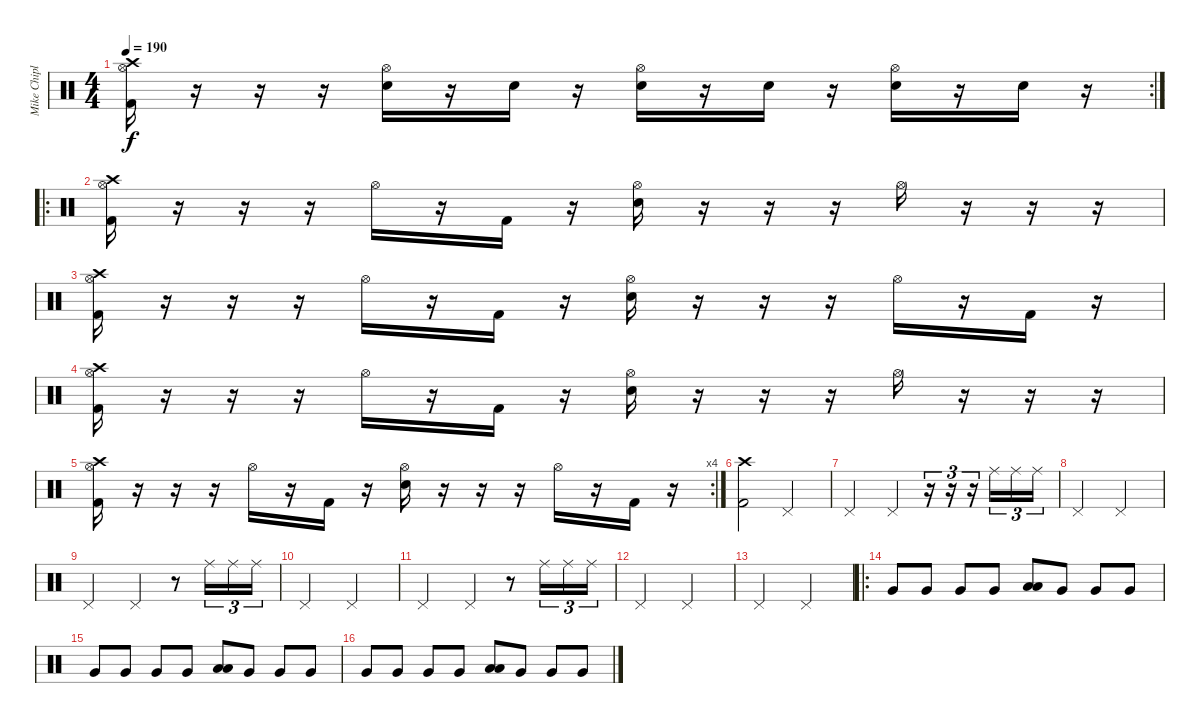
\track ("Mike Chiplin" "Mike Chipl") {instrument percussion}
\staff {score}
\articulation defaults
\rc 2
\ts (4 4)
\tempo 190
\clef neutral
\ks c
("Hi-Hat (open)" "Kick (hit) 2" "Crash high (hit)").16{dy f} r.16 r.16 r.16 ("Hi-Hat (open)" "Snare (hit) 2").16 r.16 "Snare (hit) 2".16 r.16 ("Hi-Hat (open)" "Snare (hit) 2").16 r.16 "Snare (hit) 2".16 r.16 ("Hi-Hat (open)" "Snare (hit) 2").16 r.16 "Snare (hit) 2".16 r.16 |
\ro
("Hi-Hat (open)" "Kick (hit) 2" "Crash high (hit)").16 r.16 r.16 r.16 "Hi-Hat (open)".16 r.16 "Kick (hit) 2".16 r.16 ("Hi-Hat (open)" "Snare (hit) 2").16 r.16 r.16 r.16 "Hi-Hat (open)".16 r.16 r.16 r.16 |
("Hi-Hat (open)" "Kick (hit) 2" "Crash high (hit)").16 r.16 r.16 r.16 "Hi-Hat (open)".16 r.16 "Kick (hit) 2".16 r.16 ("Hi-Hat (open)" "Snare (hit) 2").16 r.16 r.16 r.16 "Hi-Hat (open)".16 r.16 "Kick (hit) 2".16 r.16 |
("Hi-Hat (open)" "Kick (hit) 2" "Crash high (hit)").16 r.16 r.16 r.16 "Hi-Hat (open)".16 r.16 "Kick (hit) 2".16 r.16 ("Hi-Hat (open)" "Snare (hit) 2").16 r.16 r.16 r.16 "Hi-Hat (open)".16 r.16 r.16 r.16 |
\rc 4
("Hi-Hat (open)" "Kick (hit) 2" "Crash high (hit)").16 r.16 r.16 r.16 "Hi-Hat (open)".16 r.16 "Kick (hit) 2".16 r.16 ("Hi-Hat (open)" "Snare (hit) 2").16 r.16 r.16 r.16 "Hi-Hat (open)".16 r.16 "Kick (hit) 2".16 r.16 |
("Kick (hit) 2" "Crash high (hit)").2 "Pedal Hi-Hat (hit)".2 |
"Pedal Hi-Hat (hit)".2 "Pedal Hi-Hat (hit)".4 r.16{tu (3 2)} r.16{tu (3 2)} r.16{tu (3 2)} "Ride (middle)".16{tu (3 2)} "Ride (middle)".16{tu (3 2)} "Ride (middle)".16{tu (3 2)} |
"Pedal Hi-Hat (hit)".2 "Pedal Hi-Hat (hit)".2 |
"Pedal Hi-Hat (hit)".2 "Pedal Hi-Hat (hit)".4 r.8 "Ride (middle)".16{tu (3 2)} "Ride (middle)".16{tu (3 2)} "Ride (middle)".16{tu (3 2)} |
"Pedal Hi-Hat (hit)".2 "Pedal Hi-Hat (hit)".2 |
"Pedal Hi-Hat (hit)".2 "Pedal Hi-Hat (hit)".4 r.8 "Ride (middle)".16{tu (3 2)} "Ride (middle)".16{tu (3 2)} "Ride (middle)".16{tu (3 2)} |
"Pedal Hi-Hat (hit)".2 "Pedal Hi-Hat (hit)".2 |
"Pedal Hi-Hat (hit)".2 "Pedal Hi-Hat (hit)".2 |
\ro "Very Low Tom (hit)".8 "Very Low Tom (hit)".8 "Very Low Tom (hit)".8 "Very Low Tom (hit)".8
("Low Tom (hit)" "Low Tom (hit)").8 "Very Low Tom (hit)".8 "Very Low Tom (hit)".8 "Very Low Tom (hit)".8 |
"Very Low Tom (hit)".8 "Very Low Tom (hit)".8 "Very Low Tom (hit)".8 "Very Low Tom (hit)".8 ("Low Tom (hit)" "Low Tom (hit)").8 "Very Low Tom (hit)".8 "Very Low Tom (hit)".8 "Very Low Tom (hit)".8 |
"Very Low Tom (hit)".8 "Very Low Tom (hit)".8 "Very Low Tom (hit)".8 "Very Low Tom (hit)".8 ("Low Tom (hit)" "Low Tom (hit)").8 "Very Low Tom (hit)".8 "Very Low Tom (hit)".8 "Very Low Tom (hit)".8
